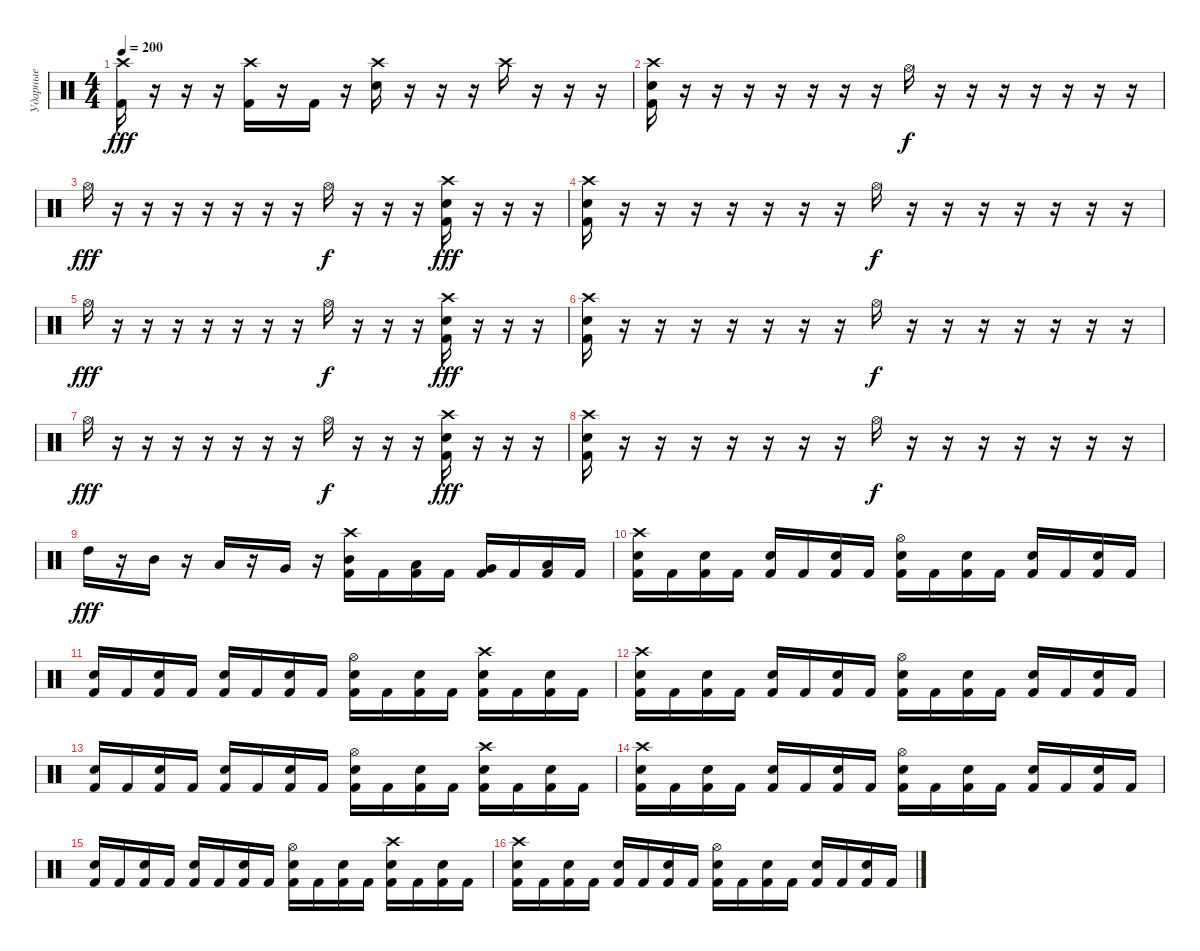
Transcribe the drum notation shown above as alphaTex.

\track ("Ударные" "Ударные") {instrument percussion}
\staff {score}
\articulation defaults
\ts (4 4)
\tempo 200
\clef neutral
\ks c
("Crash high (hit)" "Kick (hit) 2").16{dy fff} r.16 r.16 r.16 ("Crash high (hit)" "Kick (hit) 2").16 r.16 "Kick (hit) 2".16 r.16 ("Crash high (hit)" "Electric Snare (hit)").16 r.16 r.16 r.16 "Crash high (hit)".16 r.16 r.16 r.16 |
("Crash high (hit)" "Electric Snare (hit)" "Kick (hit) 2").16 r.16 r.16 r.16 r.16 r.16 r.16 r.16 "Hi-Hat (open)".16{dy f} r.16 r.16 r.16 r.16 r.16 r.16 r.16 |
"Hi-Hat (open)".16{dy fff} r.16 r.16 r.16 r.16 r.16 r.16 r.16 "Hi-Hat (open)".16{dy f} r.16 r.16 r.16 ("Crash high (hit)" "Electric Snare (hit)" "Kick (hit) 2").16{dy fff} r.16 r.16 r.16 |
("Crash high (hit)" "Electric Snare (hit)" "Kick (hit) 2").16 r.16 r.16 r.16 r.16 r.16 r.16 r.16 "Hi-Hat (open)".16{dy f} r.16 r.16 r.16 r.16 r.16 r.16 r.16 |
"Hi-Hat (open)".16{dy fff} r.16 r.16 r.16 r.16 r.16 r.16 r.16 "Hi-Hat (open)".16{dy f} r.16 r.16 r.16 ("Crash high (hit)" "Electric Snare (hit)" "Kick (hit) 2").16{dy fff} r.16 r.16 r.16 |
("Crash high (hit)" "Electric Snare (hit)" "Kick (hit) 2").16 r.16 r.16 r.16 r.16 r.16 r.16 r.16 "Hi-Hat (open)".16{dy f} r.16 r.16 r.16 r.16 r.16 r.16 r.16 |
"Hi-Hat (open)".16{dy fff} r.16 r.16 r.16 r.16 r.16 r.16 r.16 "Hi-Hat (open)".16{dy f} r.16 r.16 r.16 ("Crash high (hit)" "Electric Snare (hit)" "Kick (hit) 2").16{dy fff} r.16 r.16 r.16 |
("Crash high (hit)" "Electric Snare (hit)" "Kick (hit) 2").16 r.16 r.16 r.16 r.16 r.16 r.16 r.16 "Hi-Hat (open)".16{dy f} r.16 r.16 r.16 r.16 r.16 r.16 r.16 |
"High Tom (hit)".16{dy fff} r.16 "Mid Tom (hit)".16 r.16 "Low Tom (hit)".16 r.16 "Very Low Tom (hit)".16 r.16 ("Crash high (hit)" "Mid Tom (hit)" "Kick (hit) 2").16 "Kick (hit) 2".16 ("Low Tom (hit)" "Kick (hit) 2").16 "Kick (hit) 2".16 ("Very Low Tom (hit)" "Kick (hit) 2").16 "Kick (hit) 2".16 ("Kick (hit) 2" "Low Floor Tom (hit)").16 "Kick (hit) 2".16 |
("Crash high (hit)" "Electric Snare (hit)" "Kick (hit) 2").16 "Kick (hit) 2".16 ("Electric Snare (hit)" "Kick (hit) 2").16 "Kick (hit) 2".16 ("Electric Snare (hit)" "Kick (hit) 2").16 "Kick (hit) 2".16 ("Electric Snare (hit)" "Kick (hit) 2").16 "Kick (hit) 2".16 ("Hi-Hat (open)" "Electric Snare (hit)" "Kick (hit) 2").16 "Kick (hit) 2".16 ("Electric Snare (hit)" "Kick (hit) 2").16 "Kick (hit) 2".16 ("Electric Snare (hit)" "Kick (hit) 2").16 "Kick (hit) 2".16 ("Electric Snare (hit)" "Kick (hit) 2").16 "Kick (hit) 2".16 |
("Electric Snare (hit)" "Kick (hit) 2").16 "Kick (hit) 2".16 ("Electric Snare (hit)" "Kick (hit) 2").16 "Kick (hit) 2".16 ("Electric Snare (hit)" "Kick (hit) 2").16 "Kick (hit) 2".16 ("Electric Snare (hit)" "Kick (hit) 2").16 "Kick (hit) 2".16 ("Hi-Hat (open)" "Electric Snare (hit)" "Kick (hit) 2").16 "Kick (hit) 2".16 ("Electric Snare (hit)" "Kick (hit) 2").16 "Kick (hit) 2".16 ("Crash high (hit)" "Electric Snare (hit)" "Kick (hit) 2").16 "Kick (hit) 2".16 ("Electric Snare (hit)" "Kick (hit) 2").16 "Kick (hit) 2".16 |
("Crash high (hit)" "Electric Snare (hit)" "Kick (hit) 2").16 "Kick (hit) 2".16 ("Electric Snare (hit)" "Kick (hit) 2").16 "Kick (hit) 2".16 ("Electric Snare (hit)" "Kick (hit) 2").16 "Kick (hit) 2".16 ("Electric Snare (hit)" "Kick (hit) 2").16 "Kick (hit) 2".16 ("Hi-Hat (open)" "Electric Snare (hit)" "Kick (hit) 2").16 "Kick (hit) 2".16 ("Electric Snare (hit)" "Kick (hit) 2").16 "Kick (hit) 2".16 ("Electric Snare (hit)" "Kick (hit) 2").16 "Kick (hit) 2".16 ("Electric Snare (hit)" "Kick (hit) 2").16 "Kick (hit) 2".16 |
("Electric Snare (hit)" "Kick (hit) 2").16 "Kick (hit) 2".16 ("Electric Snare (hit)" "Kick (hit) 2").16 "Kick (hit) 2".16 ("Electric Snare (hit)" "Kick (hit) 2").16 "Kick (hit) 2".16 ("Electric Snare (hit)" "Kick (hit) 2").16 "Kick (hit) 2".16 ("Hi-Hat (open)" "Electric Snare (hit)" "Kick (hit) 2").16 "Kick (hit) 2".16 ("Electric Snare (hit)" "Kick (hit) 2").16 "Kick (hit) 2".16 ("Crash high (hit)" "Electric Snare (hit)" "Kick (hit) 2").16 "Kick (hit) 2".16 ("Electric Snare (hit)" "Kick (hit) 2").16 "Kick (hit) 2".16 |
("Crash high (hit)" "Electric Snare (hit)" "Kick (hit) 2").16 "Kick (hit) 2".16 ("Electric Snare (hit)" "Kick (hit) 2").16 "Kick (hit) 2".16 ("Electric Snare (hit)" "Kick (hit) 2").16 "Kick (hit) 2".16 ("Electric Snare (hit)" "Kick (hit) 2").16 "Kick (hit) 2".16 ("Hi-Hat (open)" "Electric Snare (hit)" "Kick (hit) 2").16 "Kick (hit) 2".16 ("Electric Snare (hit)" "Kick (hit) 2").16 "Kick (hit) 2".16 ("Electric Snare (hit)" "Kick (hit) 2").16 "Kick (hit) 2".16 ("Electric Snare (hit)" "Kick (hit) 2").16 "Kick (hit) 2".16 |
("Electric Snare (hit)" "Kick (hit) 2").16 "Kick (hit) 2".16 ("Electric Snare (hit)" "Kick (hit) 2").16 "Kick (hit) 2".16 ("Electric Snare (hit)" "Kick (hit) 2").16 "Kick (hit) 2".16 ("Electric Snare (hit)" "Kick (hit) 2").16 "Kick (hit) 2".16 ("Hi-Hat (open)" "Electric Snare (hit)" "Kick (hit) 2").16 "Kick (hit) 2".16 ("Electric Snare (hit)" "Kick (hit) 2").16 "Kick (hit) 2".16 ("Crash high (hit)" "Electric Snare (hit)" "Kick (hit) 2").16 "Kick (hit) 2".16 ("Electric Snare (hit)" "Kick (hit) 2").16 "Kick (hit) 2".16 |
("Crash high (hit)" "Electric Snare (hit)" "Kick (hit) 2").16 "Kick (hit) 2".16 ("Electric Snare (hit)" "Kick (hit) 2").16 "Kick (hit) 2".16 ("Electric Snare (hit)" "Kick (hit) 2").16 "Kick (hit) 2".16 ("Electric Snare (hit)" "Kick (hit) 2").16 "Kick (hit) 2".16 ("Hi-Hat (open)" "Electric Snare (hit)" "Kick (hit) 2").16 "Kick (hit) 2".16 ("Electric Snare (hit)" "Kick (hit) 2").16 "Kick (hit) 2".16 ("Electric Snare (hit)" "Kick (hit) 2").16 "Kick (hit) 2".16 ("Electric Snare (hit)" "Kick (hit) 2").16 "Kick (hit) 2".16
